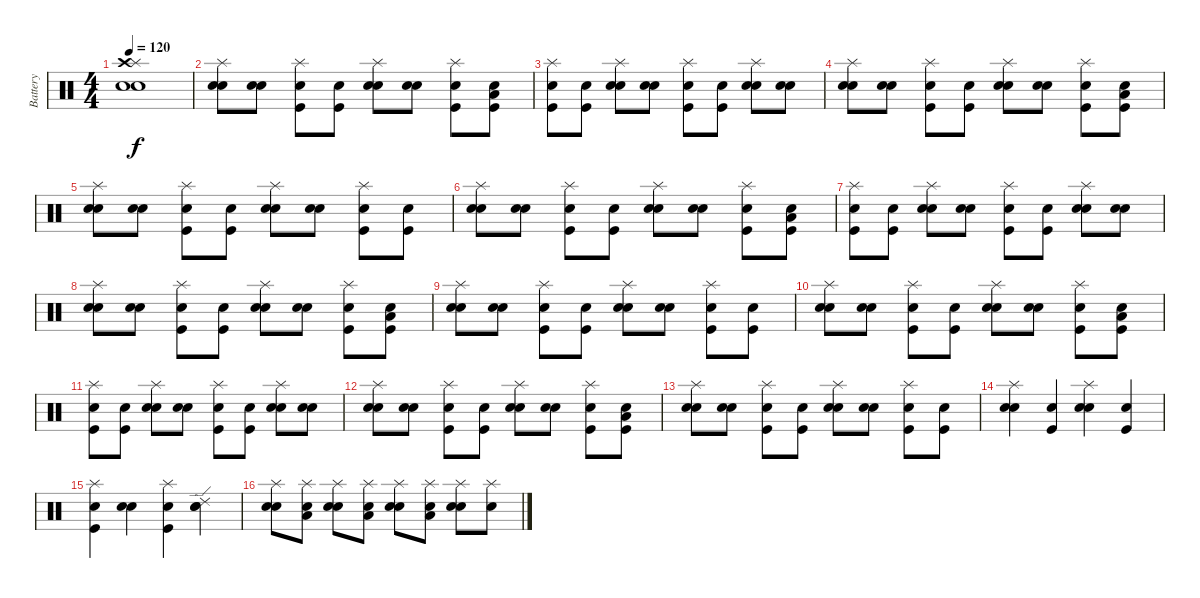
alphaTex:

\track ("Battery" "Battery") {instrument percussion}
\staff {score}
\articulation defaults
\ts (4 4)
\tempo 120
\clef neutral
\ks c
("Snare (hit) 2" "Splash (hit)" "Electric Snare (hit)" "Crash high (hit)").1{dy f} |
("Snare (hit) 2" "Electric Snare (hit)" "Splash (hit)").8 ("Snare (hit) 2" "Electric Snare (hit)").8 ("Kick (hit)" "Electric Snare (hit)" "Splash (hit)").8 ("Kick (hit)" "Electric Snare (hit)").8 ("Snare (hit) 2" "Electric Snare (hit)" "Splash (hit)").8 ("Snare (hit) 2" "Electric Snare (hit)").8 ("Kick (hit)" "Electric Snare (hit)" "Splash (hit)").8 ("Kick (hit)" "Electric Snare (hit)" "Low Floor Tom (hit)").8 |
("Kick (hit)" "Electric Snare (hit)" "Splash (hit)").8 ("Kick (hit)" "Electric Snare (hit)").8 ("Snare (hit) 2" "Electric Snare (hit)" "Splash (hit)").8 ("Snare (hit) 2" "Electric Snare (hit)").8 ("Kick (hit)" "Electric Snare (hit)" "Splash (hit)").8 ("Kick (hit)" "Electric Snare (hit)").8 ("Snare (hit) 2" "Electric Snare (hit)" "Splash (hit)").8 ("Snare (hit) 2" "Electric Snare (hit)").8 |
("Snare (hit) 2" "Electric Snare (hit)" "Splash (hit)").8 ("Snare (hit) 2" "Electric Snare (hit)").8 ("Kick (hit)" "Electric Snare (hit)" "Splash (hit)").8 ("Kick (hit)" "Electric Snare (hit)").8 ("Snare (hit) 2" "Electric Snare (hit)" "Splash (hit)").8 ("Snare (hit) 2" "Electric Snare (hit)").8 ("Kick (hit)" "Electric Snare (hit)" "Splash (hit)").8 ("Kick (hit)" "Electric Snare (hit)" "Low Floor Tom (hit)").8 |
("Snare (hit) 2" "Electric Snare (hit)" "Splash (hit)").8 ("Snare (hit) 2" "Electric Snare (hit)").8 ("Kick (hit)" "Electric Snare (hit)" "Splash (hit)").8 ("Kick (hit)" "Electric Snare (hit)").8 ("Snare (hit) 2" "Electric Snare (hit)" "Splash (hit)").8 ("Snare (hit) 2" "Electric Snare (hit)").8 ("Kick (hit)" "Electric Snare (hit)" "Splash (hit)").8 ("Kick (hit)" "Electric Snare (hit)").8 |
("Snare (hit) 2" "Electric Snare (hit)" "Splash (hit)").8 ("Snare (hit) 2" "Electric Snare (hit)").8 ("Kick (hit)" "Electric Snare (hit)" "Splash (hit)").8 ("Kick (hit)" "Electric Snare (hit)").8 ("Snare (hit) 2" "Electric Snare (hit)" "Splash (hit)").8 ("Snare (hit) 2" "Electric Snare (hit)").8 ("Kick (hit)" "Electric Snare (hit)" "Splash (hit)").8 ("Kick (hit)" "Electric Snare (hit)" "Low Floor Tom (hit)").8 |
("Kick (hit)" "Electric Snare (hit)" "Splash (hit)").8 ("Kick (hit)" "Electric Snare (hit)").8 ("Snare (hit) 2" "Electric Snare (hit)" "Splash (hit)").8 ("Snare (hit) 2" "Electric Snare (hit)").8 ("Kick (hit)" "Electric Snare (hit)" "Splash (hit)").8 ("Kick (hit)" "Electric Snare (hit)").8 ("Snare (hit) 2" "Electric Snare (hit)" "Splash (hit)").8 ("Snare (hit) 2" "Electric Snare (hit)").8 |
("Snare (hit) 2" "Electric Snare (hit)" "Splash (hit)").8 ("Snare (hit) 2" "Electric Snare (hit)").8 ("Kick (hit)" "Electric Snare (hit)" "Splash (hit)").8 ("Kick (hit)" "Electric Snare (hit)").8 ("Snare (hit) 2" "Electric Snare (hit)" "Splash (hit)").8 ("Snare (hit) 2" "Electric Snare (hit)").8 ("Kick (hit)" "Electric Snare (hit)" "Splash (hit)").8 ("Kick (hit)" "Electric Snare (hit)" "Low Floor Tom (hit)").8 |
("Snare (hit) 2" "Electric Snare (hit)" "Splash (hit)").8 ("Snare (hit) 2" "Electric Snare (hit)").8 ("Kick (hit)" "Electric Snare (hit)" "Splash (hit)").8 ("Kick (hit)" "Electric Snare (hit)").8 ("Snare (hit) 2" "Electric Snare (hit)" "Splash (hit)").8 ("Snare (hit) 2" "Electric Snare (hit)").8 ("Kick (hit)" "Electric Snare (hit)" "Splash (hit)").8 ("Kick (hit)" "Electric Snare (hit)").8 |
("Snare (hit) 2" "Electric Snare (hit)" "Splash (hit)").8 ("Snare (hit) 2" "Electric Snare (hit)").8 ("Kick (hit)" "Electric Snare (hit)" "Splash (hit)").8 ("Kick (hit)" "Electric Snare (hit)").8 ("Snare (hit) 2" "Electric Snare (hit)" "Splash (hit)").8 ("Snare (hit) 2" "Electric Snare (hit)").8 ("Kick (hit)" "Electric Snare (hit)" "Splash (hit)").8 ("Kick (hit)" "Electric Snare (hit)" "Low Floor Tom (hit)").8 |
("Kick (hit)" "Electric Snare (hit)" "Splash (hit)").8 ("Kick (hit)" "Electric Snare (hit)").8 ("Snare (hit) 2" "Electric Snare (hit)" "Splash (hit)").8 ("Snare (hit) 2" "Electric Snare (hit)").8 ("Kick (hit)" "Electric Snare (hit)" "Splash (hit)").8 ("Kick (hit)" "Electric Snare (hit)").8 ("Snare (hit) 2" "Electric Snare (hit)" "Splash (hit)").8 ("Snare (hit) 2" "Electric Snare (hit)").8 |
("Snare (hit) 2" "Electric Snare (hit)" "Splash (hit)").8 ("Snare (hit) 2" "Electric Snare (hit)").8 ("Kick (hit)" "Electric Snare (hit)" "Splash (hit)").8 ("Kick (hit)" "Electric Snare (hit)").8 ("Snare (hit) 2" "Electric Snare (hit)" "Splash (hit)").8 ("Snare (hit) 2" "Electric Snare (hit)").8 ("Kick (hit)" "Electric Snare (hit)" "Splash (hit)").8 ("Kick (hit)" "Electric Snare (hit)" "Low Floor Tom (hit)").8 |
("Snare (hit) 2" "Electric Snare (hit)" "Splash (hit)").8 ("Snare (hit) 2" "Electric Snare (hit)").8 ("Kick (hit)" "Electric Snare (hit)" "Splash (hit)").8 ("Kick (hit)" "Electric Snare (hit)").8 ("Snare (hit) 2" "Electric Snare (hit)" "Splash (hit)").8 ("Snare (hit) 2" "Electric Snare (hit)").8 ("Kick (hit)" "Electric Snare (hit)" "Splash (hit)").8 ("Kick (hit)" "Electric Snare (hit)").8 |
("Snare (hit) 2" "Electric Snare (hit)" "Splash (hit)").4 ("Kick (hit)" "Electric Snare (hit)").4 ("Snare (hit) 2" "Electric Snare (hit)" "Splash (hit)").4 ("Kick (hit)" "Electric Snare (hit)").4 |
("Kick (hit)" "Electric Snare (hit)" "Splash (hit)").4 ("Snare (hit) 2" "Electric Snare (hit)").4 ("Kick (hit)" "Electric Snare (hit)" "Splash (hit)").4 ("Snare (hit) 2" "Electric Snare (hit)" "Ride (edge) 2").4 |
("Snare (hit) 2" "Electric Snare (hit)" "Splash (hit)").8 ("Snare (hit) 2" "Splash (hit)" "Low Floor Tom (hit)").8 ("Snare (hit) 2" "Electric Snare (hit)" "Splash (hit)").8 ("Snare (hit) 2" "Splash (hit)" "Low Floor Tom (hit)").8 ("Snare (hit) 2" "Electric Snare (hit)" "Splash (hit)").8 ("Snare (hit) 2" "Splash (hit)" "Low Floor Tom (hit)").8 ("Snare (hit) 2" "Electric Snare (hit)" "Splash (hit)").8 ("Snare (hit) 2" "Splash (hit)").8
